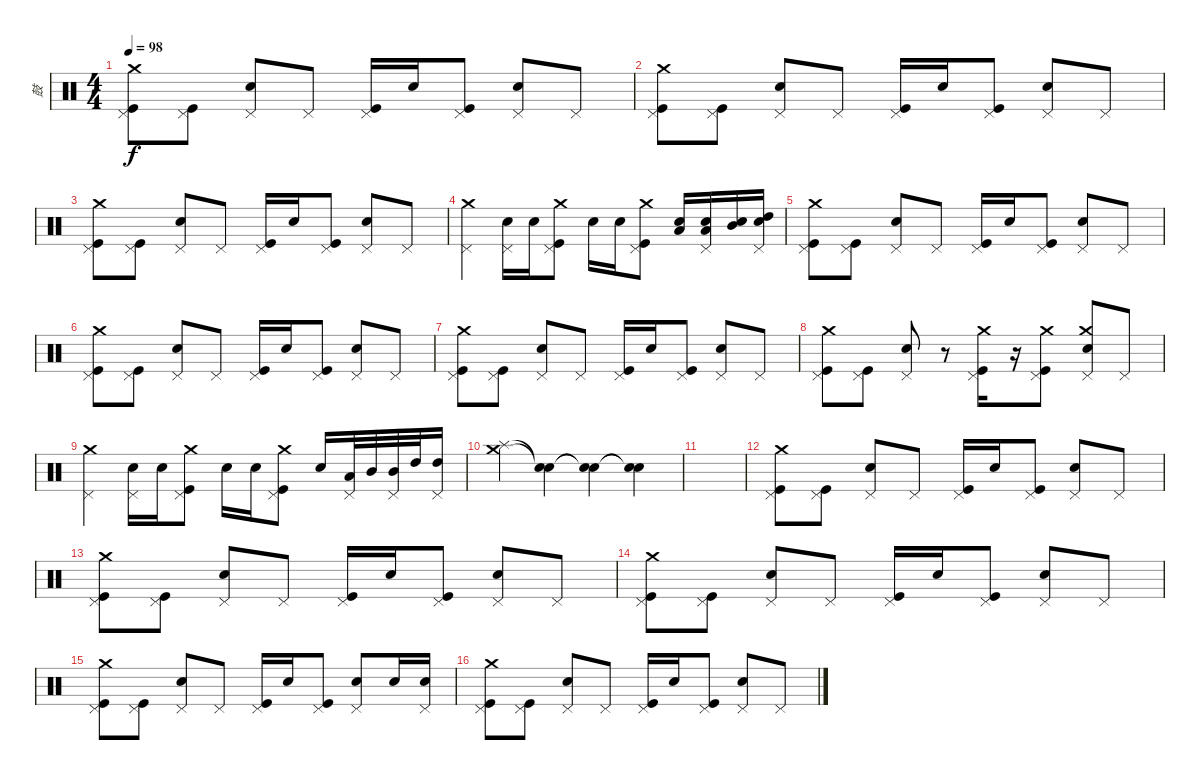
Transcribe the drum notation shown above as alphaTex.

\track ("鼓" "鼓") {instrument percussion}
\staff {score}
\articulation defaults
\ts (4 4)
\tempo 98
\clef neutral
\ks c
("Pedal Hi-Hat (hit)" "Kick (hit)" "Crash medium (hit)").8{dy f} ("Pedal Hi-Hat (hit)" "Kick (hit)").8 ("Pedal Hi-Hat (hit)" "Electric Snare (hit)").8 "Pedal Hi-Hat (hit)".8 ("Pedal Hi-Hat (hit)" "Kick (hit)").16 "Electric Snare (hit)".16 ("Pedal Hi-Hat (hit)" "Kick (hit)").8 ("Pedal Hi-Hat (hit)" "Electric Snare (hit)").8 "Pedal Hi-Hat (hit)".8 |
("Pedal Hi-Hat (hit)" "Kick (hit)" "Crash medium (hit)").8 ("Pedal Hi-Hat (hit)" "Kick (hit)").8 ("Pedal Hi-Hat (hit)" "Electric Snare (hit)").8 "Pedal Hi-Hat (hit)".8 ("Pedal Hi-Hat (hit)" "Kick (hit)").16 "Electric Snare (hit)".16 ("Pedal Hi-Hat (hit)" "Kick (hit)").8 ("Pedal Hi-Hat (hit)" "Electric Snare (hit)").8 "Pedal Hi-Hat (hit)".8 |
("Pedal Hi-Hat (hit)" "Kick (hit)" "Crash medium (hit)").8 ("Pedal Hi-Hat (hit)" "Kick (hit)").8 ("Pedal Hi-Hat (hit)" "Electric Snare (hit)").8 "Pedal Hi-Hat (hit)".8 ("Pedal Hi-Hat (hit)" "Kick (hit)").16 "Electric Snare (hit)".16 ("Pedal Hi-Hat (hit)" "Kick (hit)").8 ("Pedal Hi-Hat (hit)" "Electric Snare (hit)").8 "Pedal Hi-Hat (hit)".8 |
("Pedal Hi-Hat (hit)" "Crash medium (hit)").4 ("Pedal Hi-Hat (hit)" "Electric Snare (hit)").16 "Electric Snare (hit)".16 ("Pedal Hi-Hat (hit)" "Kick (hit)" "Crash medium (hit)").8 "Electric Snare (hit)".16 "Electric Snare (hit)".16 ("Pedal Hi-Hat (hit)" "Kick (hit)" "Crash medium (hit)").8 ("Low Tom (hit)" "Electric Snare (hit)").16 ("Pedal Hi-Hat (hit)" "Low Tom (hit)" "Electric Snare (hit)").16 ("Mid Tom (hit)" "Electric Snare (hit)").16 ("Pedal Hi-Hat (hit)" "High Tom (hit)" "Electric Snare (hit)").16 |
("Pedal Hi-Hat (hit)" "Kick (hit)" "Crash medium (hit)").8 ("Pedal Hi-Hat (hit)" "Kick (hit)").8 ("Pedal Hi-Hat (hit)" "Electric Snare (hit)").8 "Pedal Hi-Hat (hit)".8 ("Pedal Hi-Hat (hit)" "Kick (hit)").16 "Electric Snare (hit)".16 ("Pedal Hi-Hat (hit)" "Kick (hit)").8 ("Pedal Hi-Hat (hit)" "Electric Snare (hit)").8 "Pedal Hi-Hat (hit)".8 |
("Pedal Hi-Hat (hit)" "Kick (hit)" "Crash medium (hit)").8 ("Pedal Hi-Hat (hit)" "Kick (hit)").8 ("Pedal Hi-Hat (hit)" "Electric Snare (hit)").8 "Pedal Hi-Hat (hit)".8 ("Pedal Hi-Hat (hit)" "Kick (hit)").16 "Electric Snare (hit)".16 ("Pedal Hi-Hat (hit)" "Kick (hit)").8 ("Pedal Hi-Hat (hit)" "Electric Snare (hit)").8 "Pedal Hi-Hat (hit)".8 |
("Pedal Hi-Hat (hit)" "Kick (hit)" "Crash medium (hit)").8 ("Pedal Hi-Hat (hit)" "Kick (hit)").8 ("Pedal Hi-Hat (hit)" "Electric Snare (hit)").8 "Pedal Hi-Hat (hit)".8 ("Pedal Hi-Hat (hit)" "Kick (hit)").16 "Electric Snare (hit)".16 ("Pedal Hi-Hat (hit)" "Kick (hit)").8 ("Pedal Hi-Hat (hit)" "Electric Snare (hit)").8 "Pedal Hi-Hat (hit)".8 |
("Pedal Hi-Hat (hit)" "Kick (hit)" "Crash medium (hit)").8 ("Pedal Hi-Hat (hit)" "Kick (hit)").8 ("Pedal Hi-Hat (hit)" "Electric Snare (hit)").8 r.8 ("Pedal Hi-Hat (hit)" "Kick (hit)" "Crash medium (hit)").16 r.16 ("Pedal Hi-Hat (hit)" "Kick (hit)" "Crash medium (hit)").8 ("Pedal Hi-Hat (hit)" "Electric Snare (hit)" "Crash medium (hit)").8 "Pedal Hi-Hat (hit)".8 |
("Pedal Hi-Hat (hit)" "Crash medium (hit)").4 ("Pedal Hi-Hat (hit)" "Electric Snare (hit)").16 "Electric Snare (hit)".16 ("Pedal Hi-Hat (hit)" "Kick (hit)" "Crash medium (hit)").8 "Electric Snare (hit)".16 "Electric Snare (hit)".16 ("Pedal Hi-Hat (hit)" "Kick (hit)" "Crash medium (hit)").8 "Electric Snare (hit)".16 ("Pedal Hi-Hat (hit)" "Low Tom (hit)").32 "Mid Tom (hit)".32 ("Pedal Hi-Hat (hit)" "Mid Tom (hit)").32 "High Tom (hit)".32 ("Pedal Hi-Hat (hit)" "High Tom (hit)").16 |
("Splash (hit)" "Crash medium (hit)").4 ("Snare (hit)"{t} "Snare (hit)"{t}).4 ("Snare (hit)"{t} "Snare (hit)"{t}).4 ("Snare (hit)"{t} "Snare (hit)"{t}).4 |
|
("Pedal Hi-Hat (hit)" "Kick (hit)" "Crash medium (hit)").8 ("Pedal Hi-Hat (hit)" "Kick (hit)").8 ("Pedal Hi-Hat (hit)" "Electric Snare (hit)").8 "Pedal Hi-Hat (hit)".8 ("Pedal Hi-Hat (hit)" "Kick (hit)").16 "Electric Snare (hit)".16 ("Pedal Hi-Hat (hit)" "Kick (hit)").8 ("Pedal Hi-Hat (hit)" "Electric Snare (hit)").8 "Pedal Hi-Hat (hit)".8 |
("Pedal Hi-Hat (hit)" "Kick (hit)" "Crash medium (hit)").8 ("Pedal Hi-Hat (hit)" "Kick (hit)").8 ("Pedal Hi-Hat (hit)" "Electric Snare (hit)").8 "Pedal Hi-Hat (hit)".8 ("Pedal Hi-Hat (hit)" "Kick (hit)").16 "Electric Snare (hit)".16 ("Pedal Hi-Hat (hit)" "Kick (hit)").8 ("Pedal Hi-Hat (hit)" "Electric Snare (hit)").8 "Pedal Hi-Hat (hit)".8 |
("Pedal Hi-Hat (hit)" "Kick (hit)" "Crash medium (hit)").8 ("Pedal Hi-Hat (hit)" "Kick (hit)").8 ("Pedal Hi-Hat (hit)" "Electric Snare (hit)").8 "Pedal Hi-Hat (hit)".8 ("Pedal Hi-Hat (hit)" "Kick (hit)").16 "Electric Snare (hit)".16 ("Pedal Hi-Hat (hit)" "Kick (hit)").8 ("Pedal Hi-Hat (hit)" "Electric Snare (hit)").8 "Pedal Hi-Hat (hit)".8 |
("Pedal Hi-Hat (hit)" "Kick (hit)" "Crash medium (hit)").8 ("Pedal Hi-Hat (hit)" "Kick (hit)").8 ("Pedal Hi-Hat (hit)" "Electric Snare (hit)").8 "Pedal Hi-Hat (hit)".8 ("Pedal Hi-Hat (hit)" "Kick (hit)").16 "Electric Snare (hit)".16 ("Pedal Hi-Hat (hit)" "Kick (hit)").8 ("Pedal Hi-Hat (hit)" "Electric Snare (hit)").8 "Electric Snare (hit)".16 ("Pedal Hi-Hat (hit)" "Electric Snare (hit)").16 |
("Pedal Hi-Hat (hit)" "Kick (hit)" "Crash medium (hit)").8 ("Pedal Hi-Hat (hit)" "Kick (hit)").8 ("Pedal Hi-Hat (hit)" "Electric Snare (hit)").8 "Pedal Hi-Hat (hit)".8 ("Pedal Hi-Hat (hit)" "Kick (hit)").16 "Electric Snare (hit)".16 ("Pedal Hi-Hat (hit)" "Kick (hit)").8 ("Pedal Hi-Hat (hit)" "Electric Snare (hit)").8 "Pedal Hi-Hat (hit)".8
